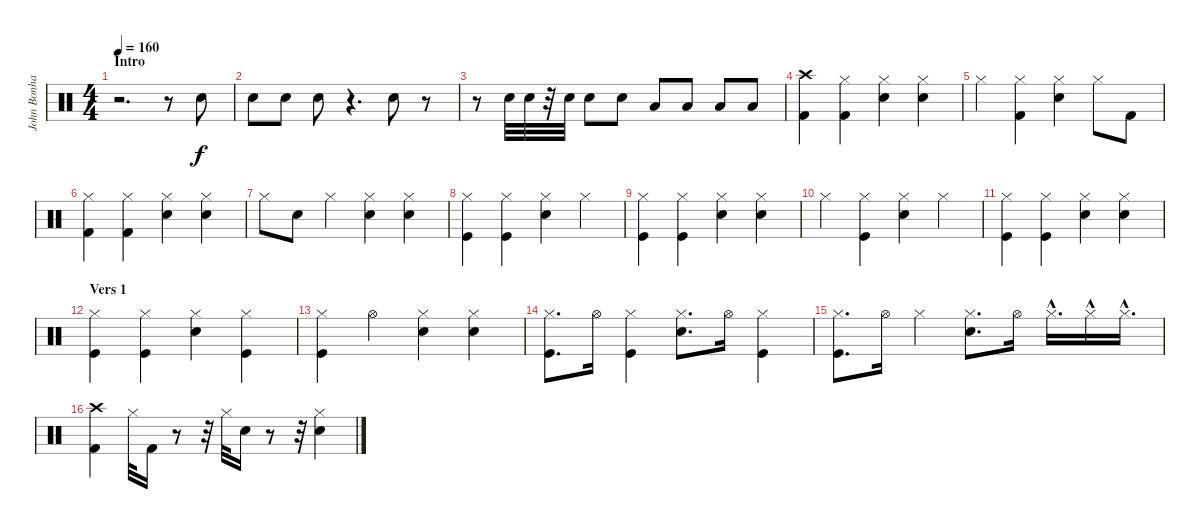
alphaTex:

\track ("John Bonham" "John Bonha") {instrument percussion}
\staff {score}
\articulation defaults
\ts (4 4)
\section ("" "Intro")
\tempo 160
\clef neutral
\ks c
r.2{d dy f} r.8 "Snare (hit) 2".8 |
"Snare (hit) 2".8 "Snare (hit) 2".8 "Snare (hit) 2".8 r.4{d} "Snare (hit) 2".8 r.8 |
r.8 "Snare (hit) 2".32 "Snare (hit) 2".32 r.32 "Snare (hit) 2".32 "Snare (hit) 2".8 "Snare (hit) 2".8 "Low Tom (hit)".8 "Low Tom (hit)".8 "Low Floor Tom (hit)".8 "Low Floor Tom (hit)".8 |
("Crash high (hit)" "Kick (hit) 2").4 ("Kick (hit) 2" "Hi-Hat (closed)").4 ("Snare (hit) 2" "Hi-Hat (closed)").4 ("Snare (hit) 2" "Hi-Hat (closed)").4 |
"Hi-Hat (closed)".4 ("Kick (hit) 2" "Hi-Hat (closed)").4 ("Snare (hit) 2" "Hi-Hat (closed)").4 "Hi-Hat (closed)".8 "Kick (hit) 2".8 |
("Kick (hit) 2" "Hi-Hat (closed)").4 ("Kick (hit) 2" "Hi-Hat (closed)").4 ("Snare (hit) 2" "Hi-Hat (closed)").4 ("Snare (hit) 2" "Hi-Hat (closed)").4 |
"Hi-Hat (closed)".8 "Snare (hit) 2".8 "Hi-Hat (closed)".4 ("Snare (hit) 2" "Hi-Hat (closed)").4 ("Snare (hit) 2" "Hi-Hat (closed)").4 |
("Kick (hit)" "Hi-Hat (closed)").4 ("Kick (hit)" "Hi-Hat (closed)").4 ("Snare (hit) 2" "Hi-Hat (closed)").4 "Hi-Hat (closed)".4 |
("Kick (hit)" "Hi-Hat (closed)").4 ("Kick (hit)" "Hi-Hat (closed)").4 ("Snare (hit) 2" "Hi-Hat (closed)").4 ("Snare (hit) 2" "Hi-Hat (closed)").4 |
"Hi-Hat (closed)".4 ("Kick (hit)" "Hi-Hat (closed)").4 ("Snare (hit) 2" "Hi-Hat (closed)").4 "Hi-Hat (closed)".4 |
("Kick (hit)" "Hi-Hat (closed)").4 ("Kick (hit)" "Hi-Hat (closed)").4 ("Snare (hit) 2" "Hi-Hat (closed)").4 ("Snare (hit) 2" "Hi-Hat (closed)").4 |
\section ("" "Vers 1")
("Kick (hit)" "Hi-Hat (closed)").4 ("Kick (hit)" "Hi-Hat (closed)").4 ("Snare (hit) 2" "Hi-Hat (closed)").4 ("Kick (hit)" "Hi-Hat (closed)").4 |
("Kick (hit)" "Hi-Hat (closed)").4 "Hi-Hat (open)".4 ("Snare (hit) 2" "Hi-Hat (closed)").4 ("Snare (hit) 2" "Hi-Hat (closed)").4 |
("Kick (hit)" "Hi-Hat (closed)").8{d} "Hi-Hat (open)".16 ("Kick (hit)" "Hi-Hat (closed)").4 ("Snare (hit) 2" "Hi-Hat (closed)").8{d} "Hi-Hat (open)".16 ("Kick (hit)" "Hi-Hat (closed)").4 |
("Kick (hit)" "Hi-Hat (closed)").8{d} "Hi-Hat (open)".16 "Hi-Hat (closed)".4 ("Snare (hit) 2" "Hi-Hat (closed)").8{d} "Hi-Hat (open)".16 "Hi-Hat (closed)"{hac}.16{d} "Hi-Hat (closed)"{hac}.16 "Hi-Hat (closed)"{hac}.16{d} |
("Kick (hit) 2" "Crash high (hit)").4 "Hi-Hat (closed)".32 "Kick (hit) 2".16 r.8 r.32 "Hi-Hat (closed)".32 "Snare (hit) 2".16 r.8 r.32 ("Hi-Hat (closed)" "Snare (hit) 2").4
